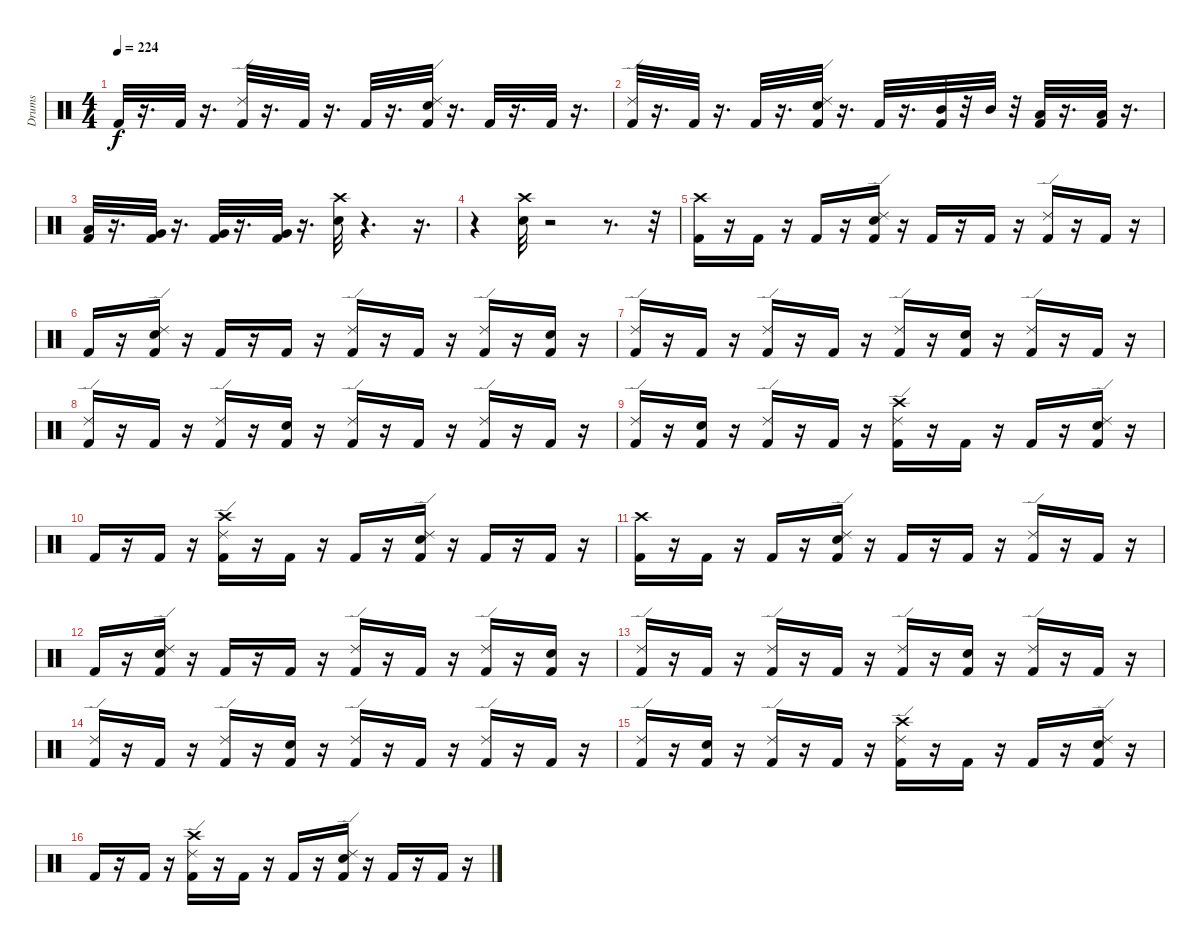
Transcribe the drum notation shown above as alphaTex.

\track ("Drums" "Drums") {instrument percussion}
\staff {score}
\articulation defaults
\ts (4 4)
\tempo 224
\clef neutral
\ks c "Kick (hit) 2".32{dy f}
r.16{d} "Kick (hit) 2".32 r.16{d} ("Kick (hit) 2" "Ride (edge) 2").32 r.16{d} "Kick (hit) 2".32 r.16{d} "Kick (hit) 2".32 r.16{d} ("Kick (hit) 2" "Snare (hit) 2" "Ride (edge) 2").32 r.16{d} "Kick (hit) 2".32 r.16{d} "Kick (hit) 2".32 r.16{d} |
("Kick (hit) 2" "Ride (edge) 2").32 r.16{d} "Kick (hit) 2".32 r.16{d} "Kick (hit) 2".32 r.16{d} ("Snare (hit) 2" "Kick (hit) 2" "Ride (edge) 2").32 r.16{d} "Kick (hit) 2".32 r.16{d} ("Mid Tom (hit)" "Kick (hit) 2").32 r.32 "Mid Tom (hit)".32 r.32 ("Low Tom (hit)" "Kick (hit) 2").32 r.16{d} ("Low Tom (hit)" "Kick (hit) 2").32 r.16{d} |
("Low Tom (hit)" "Kick (hit) 2").32 r.16{d} ("Kick (hit) 2" "Very Low Tom (hit)").32 r.16{d} ("Very Low Tom (hit)" "Kick (hit) 2").32 r.16{d} ("Very Low Tom (hit)" "Kick (hit) 2").32 r.16{d} ("Snare (hit) 2" "Crash high (hit)").32 r.4{d} r.16{d} |
r.4 ("Snare (hit) 2" "Crash high (hit)").32 r.2 r.8{d} r.32 |
("Crash high (hit)" "Kick (hit) 2").16 r.16 "Kick (hit) 2".16 r.16 "Kick (hit) 2".16 r.16 ("Snare (hit) 2" "Ride (edge) 2" "Kick (hit) 2").16 r.16 "Kick (hit) 2".16 r.16 "Kick (hit) 2".16 r.16 ("Ride (edge) 2" "Kick (hit) 2").16 r.16 "Kick (hit) 2".16 r.16 |
"Kick (hit) 2".16 r.16 ("Ride (edge) 2" "Kick (hit) 2" "Snare (hit) 2").16 r.16 "Kick (hit) 2".16 r.16 "Kick (hit) 2".16 r.16 ("Ride (edge) 2" "Kick (hit) 2").16 r.16 "Kick (hit) 2".16 r.16 ("Ride (edge) 2" "Kick (hit) 2").16 r.16 ("Snare (hit) 2" "Kick (hit) 2").16 r.16 |
("Ride (edge) 2" "Kick (hit) 2").16 r.16 "Kick (hit) 2".16 r.16 ("Ride (edge) 2" "Kick (hit) 2").16 r.16 "Kick (hit) 2".16 r.16 ("Ride (edge) 2" "Kick (hit) 2").16 r.16 ("Kick (hit) 2" "Snare (hit) 2").16 r.16 ("Ride (edge) 2" "Kick (hit) 2").16 r.16 "Kick (hit) 2".16 r.16 |
("Ride (edge) 2" "Kick (hit) 2").16 r.16 "Kick (hit) 2".16 r.16 ("Ride (edge) 2" "Kick (hit) 2").16 r.16 ("Snare (hit) 2" "Kick (hit) 2").16 r.16 ("Ride (edge) 2" "Kick (hit) 2").16 r.16 "Kick (hit) 2".16 r.16 ("Ride (edge) 2" "Kick (hit) 2").16 r.16 "Kick (hit) 2".16 r.16 |
("Ride (edge) 2" "Kick (hit) 2").16 r.16 ("Kick (hit) 2" "Snare (hit) 2").16 r.16 ("Ride (edge) 2" "Kick (hit) 2").16 r.16 "Kick (hit) 2".16 r.16 ("Ride (edge) 2" "Crash high (hit)" "Kick (hit) 2").16 r.16 "Kick (hit) 2".16 r.16 "Kick (hit) 2".16 r.16 ("Ride (edge) 2" "Snare (hit) 2" "Kick (hit) 2").16 r.16 |
"Kick (hit) 2".16 r.16 "Kick (hit) 2".16 r.16 ("Ride (edge) 2" "Crash high (hit)" "Kick (hit) 2").16 r.16 "Kick (hit) 2".16 r.16 "Kick (hit) 2".16 r.16 ("Ride (edge) 2" "Snare (hit) 2" "Kick (hit) 2").16 r.16 "Kick (hit) 2".16 r.16 "Kick (hit) 2".16 r.16 |
("Crash high (hit)" "Kick (hit) 2").16 r.16 "Kick (hit) 2".16 r.16 "Kick (hit) 2".16 r.16 ("Snare (hit) 2" "Ride (edge) 2" "Kick (hit) 2").16 r.16 "Kick (hit) 2".16 r.16 "Kick (hit) 2".16 r.16 ("Ride (edge) 2" "Kick (hit) 2").16 r.16 "Kick (hit) 2".16 r.16 |
"Kick (hit) 2".16 r.16 ("Ride (edge) 2" "Kick (hit) 2" "Snare (hit) 2").16 r.16 "Kick (hit) 2".16 r.16 "Kick (hit) 2".16 r.16 ("Ride (edge) 2" "Kick (hit) 2").16 r.16 "Kick (hit) 2".16 r.16 ("Ride (edge) 2" "Kick (hit) 2").16 r.16 ("Snare (hit) 2" "Kick (hit) 2").16 r.16 |
("Ride (edge) 2" "Kick (hit) 2").16 r.16 "Kick (hit) 2".16 r.16 ("Ride (edge) 2" "Kick (hit) 2").16 r.16 "Kick (hit) 2".16 r.16 ("Ride (edge) 2" "Kick (hit) 2").16 r.16 ("Kick (hit) 2" "Snare (hit) 2").16 r.16 ("Ride (edge) 2" "Kick (hit) 2").16 r.16 "Kick (hit) 2".16 r.16 |
("Ride (edge) 2" "Kick (hit) 2").16 r.16 "Kick (hit) 2".16 r.16 ("Ride (edge) 2" "Kick (hit) 2").16 r.16 ("Snare (hit) 2" "Kick (hit) 2").16 r.16 ("Ride (edge) 2" "Kick (hit) 2").16 r.16 "Kick (hit) 2".16 r.16 ("Ride (edge) 2" "Kick (hit) 2").16 r.16 "Kick (hit) 2".16 r.16 |
("Ride (edge) 2" "Kick (hit) 2").16 r.16 ("Kick (hit) 2" "Snare (hit) 2").16 r.16 ("Ride (edge) 2" "Kick (hit) 2").16 r.16 "Kick (hit) 2".16 r.16 ("Ride (edge) 2" "Crash high (hit)" "Kick (hit) 2").16 r.16 "Kick (hit) 2".16 r.16 "Kick (hit) 2".16 r.16 ("Ride (edge) 2" "Snare (hit) 2" "Kick (hit) 2").16 r.16 |
"Kick (hit) 2".16 r.16 "Kick (hit) 2".16 r.16 ("Ride (edge) 2" "Crash high (hit)" "Kick (hit) 2").16 r.16 "Kick (hit) 2".16 r.16 "Kick (hit) 2".16 r.16 ("Ride (edge) 2" "Snare (hit) 2" "Kick (hit) 2").16 r.16 "Kick (hit) 2".16 r.16 "Kick (hit) 2".16 r.16
